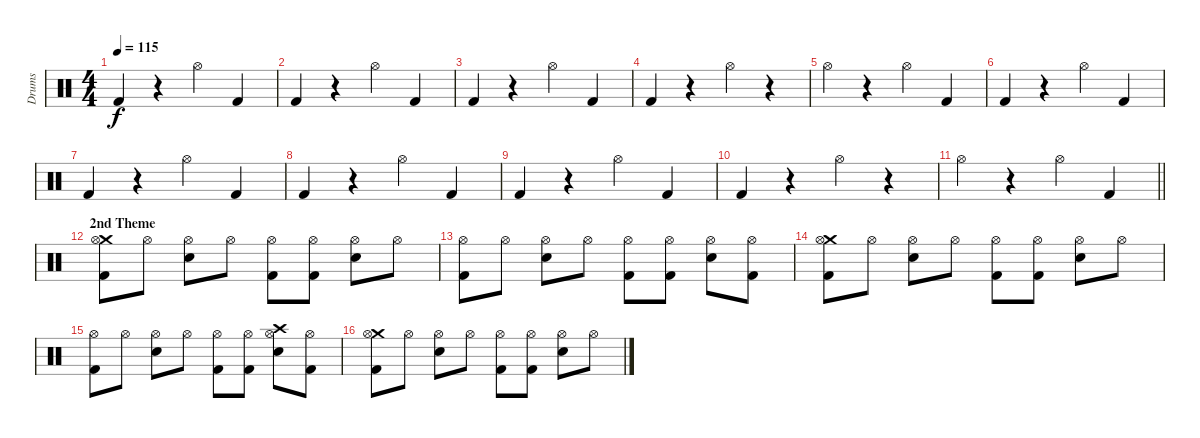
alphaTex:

\track ("Drums" "Drums") {instrument percussion}
\staff {score}
\articulation defaults
\ts (4 4)
\tempo 115
\clef neutral
\ks c "Kick (hit) 2".4{dy f}
r.4 "Hi-Hat (open)".4 "Kick (hit) 2".4 |
"Kick (hit) 2".4 r.4 "Hi-Hat (open)".4 "Kick (hit) 2".4 |
"Kick (hit) 2".4 r.4 "Hi-Hat (open)".4 "Kick (hit) 2".4 |
"Kick (hit) 2".4 r.4 "Hi-Hat (open)".4 r.4 |
"Hi-Hat (open)".4 r.4 "Hi-Hat (open)".4 "Kick (hit) 2".4 |
"Kick (hit) 2".4 r.4 "Hi-Hat (open)".4 "Kick (hit) 2".4 |
"Kick (hit) 2".4 r.4 "Hi-Hat (open)".4 "Kick (hit) 2".4 |
"Kick (hit) 2".4 r.4 "Hi-Hat (open)".4 "Kick (hit) 2".4 |
"Kick (hit) 2".4 r.4 "Hi-Hat (open)".4 "Kick (hit) 2".4 |
"Kick (hit) 2".4 r.4 "Hi-Hat (open)".4 r.4 |
\barLineRight lightlight "Hi-Hat (open)".4
r.4 "Hi-Hat (open)".4 "Kick (hit) 2".4 |
\section ("" "2nd Theme")
("Crash medium (hit)" "Hi-Hat (open)" "Kick (hit) 2").8 "Hi-Hat (open)".8 ("Hi-Hat (open)" "Snare (hit) 2").8 "Hi-Hat (open)".8 ("Hi-Hat (open)" "Kick (hit) 2").8 ("Hi-Hat (open)" "Kick (hit) 2").8 ("Hi-Hat (open)" "Snare (hit) 2").8 "Hi-Hat (open)".8 |
("Hi-Hat (open)" "Kick (hit) 2").8 "Hi-Hat (open)".8 ("Hi-Hat (open)" "Snare (hit) 2").8 "Hi-Hat (open)".8 ("Hi-Hat (open)" "Kick (hit) 2").8 ("Hi-Hat (open)" "Kick (hit) 2").8 ("Hi-Hat (open)" "Snare (hit) 2").8 ("Hi-Hat (open)" "Kick (hit) 2").8 |
("Crash medium (hit)" "Hi-Hat (open)" "Kick (hit) 2").8 "Hi-Hat (open)".8 ("Hi-Hat (open)" "Snare (hit) 2").8 "Hi-Hat (open)".8 ("Hi-Hat (open)" "Kick (hit) 2").8 ("Hi-Hat (open)" "Kick (hit) 2").8 ("Hi-Hat (open)" "Snare (hit) 2").8 "Hi-Hat (open)".8 |
("Hi-Hat (open)" "Kick (hit) 2").8 "Hi-Hat (open)".8 ("Hi-Hat (open)" "Snare (hit) 2").8 "Hi-Hat (open)".8 ("Hi-Hat (open)" "Kick (hit) 2").8 ("Hi-Hat (open)" "Kick (hit) 2").8 ("Crash high (hit)" "Hi-Hat (open)" "Snare (hit) 2").8 ("Hi-Hat (open)" "Kick (hit) 2").8 |
("Crash medium (hit)" "Hi-Hat (open)" "Kick (hit) 2").8 "Hi-Hat (open)".8 ("Hi-Hat (open)" "Snare (hit) 2").8 "Hi-Hat (open)".8 ("Hi-Hat (open)" "Kick (hit) 2").8 ("Hi-Hat (open)" "Kick (hit) 2").8 ("Hi-Hat (open)" "Snare (hit) 2").8 "Hi-Hat (open)".8
